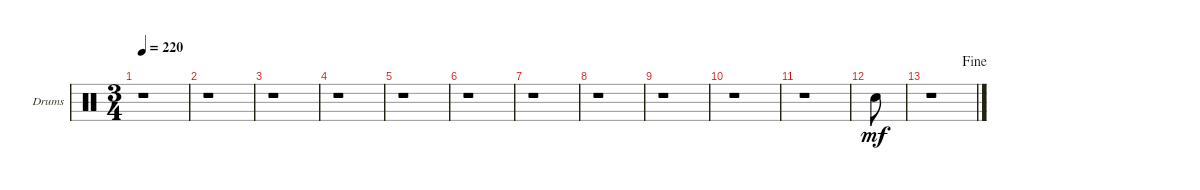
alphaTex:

\defaultSystemsLayout 4
\bracketExtendMode groupsimilarinstruments
\firstSystemTrackNameOrientation horizontal
\otherSystemsTrackNameOrientation horizontal
\track ("Drumkit" "Drums") {instrument percussion}
\staff {score}
\articulation defaults
\ts (3 4)
\tempo 220
\clef neutral
\ks c
r.1{dy mf} |
r.1 |
r.1 |
r.1 |
r.1 |
r.1 |
r.1 |
r.1 |
r.1 |
r.1 |
r.1 |
"Snare (hit) 2".8 |
\jump fine
r.1
